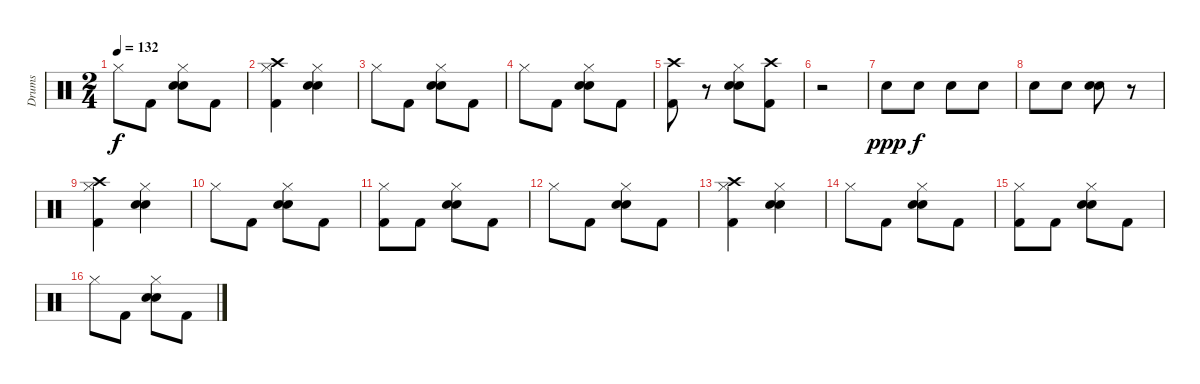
\track ("Drums" "Drums") {instrument percussion}
\staff {score}
\articulation defaults
\ts (2 4)
\tempo 132
\clef neutral
\ks c "Hi-Hat (closed)".8{dy f} "Kick (hit) 2".8
("Electric Snare (hit)" "Electric Snare (hit)" "Hi-Hat (closed)").8 "Kick (hit) 2".8 |
("Kick (hit) 2" "Crash high (hit)" "Hi-Hat (closed)").4 ("Electric Snare (hit)" "Electric Snare (hit)" "Hi-Hat (closed)").4 |
"Hi-Hat (closed)".8 "Kick (hit) 2".8 ("Electric Snare (hit)" "Electric Snare (hit)" "Hi-Hat (closed)").8 "Kick (hit) 2".8 |
"Hi-Hat (closed)".8 "Kick (hit) 2".8 ("Electric Snare (hit)" "Electric Snare (hit)" "Hi-Hat (closed)").8 "Kick (hit) 2".8 |
("Kick (hit) 2" "Crash high (hit)").8 r.8 ("Electric Snare (hit)" "Electric Snare (hit)" "Hi-Hat (closed)").8 ("Kick (hit) 2" "Crash high (hit)").8 |
r.2 |
"Electric Snare (hit)".8{dy ppp volume 10} "Electric Snare (hit)".8{dy f volume 11} "Electric Snare (hit)".8{volume 11} "Electric Snare (hit)".8 |
"Electric Snare (hit)".8{volume 12} "Electric Snare (hit)".8 ("Electric Snare (hit)" "Electric Snare (hit)").8{bd 240 volume 15} r.8 |
("Kick (hit) 2" "Crash high (hit)" "Hi-Hat (closed)").4 ("Electric Snare (hit)" "Electric Snare (hit)" "Hi-Hat (closed)").4 |
"Hi-Hat (closed)".8 "Kick (hit) 2".8 ("Electric Snare (hit)" "Electric Snare (hit)" "Hi-Hat (closed)").8 "Kick (hit) 2".8 |
("Kick (hit) 2" "Hi-Hat (closed)").8 "Kick (hit) 2".8 ("Electric Snare (hit)" "Electric Snare (hit)" "Hi-Hat (closed)").8 "Kick (hit) 2".8 |
"Hi-Hat (closed)".8 "Kick (hit) 2".8 ("Electric Snare (hit)" "Electric Snare (hit)" "Hi-Hat (closed)").8 "Kick (hit) 2".8 |
("Kick (hit) 2" "Crash high (hit)" "Hi-Hat (closed)").4 ("Electric Snare (hit)" "Electric Snare (hit)" "Hi-Hat (closed)").4 |
"Hi-Hat (closed)".8 "Kick (hit) 2".8 ("Electric Snare (hit)" "Electric Snare (hit)" "Hi-Hat (closed)").8 "Kick (hit) 2".8 |
("Kick (hit) 2" "Hi-Hat (closed)").8 "Kick (hit) 2".8 ("Electric Snare (hit)" "Electric Snare (hit)" "Hi-Hat (closed)").8 "Kick (hit) 2".8 |
"Hi-Hat (closed)".8 "Kick (hit) 2".8 ("Electric Snare (hit)" "Electric Snare (hit)" "Hi-Hat (closed)").8 "Kick (hit) 2".8
